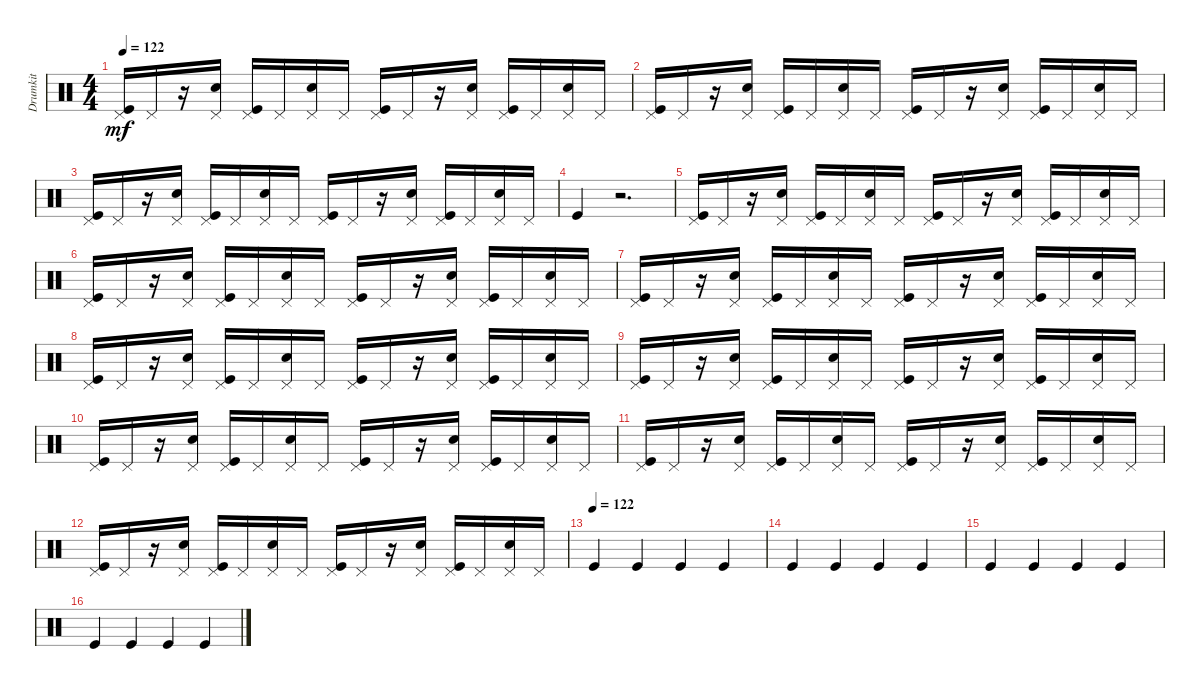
\track ("Drumkit" "Drumkit") {instrument percussion}
\staff {score}
\articulation defaults
\ts (4 4)
\tempo 122
\clef neutral
\ks c
("Kick (hit)" "Pedal Hi-Hat (hit)").16{dy mf} "Pedal Hi-Hat (hit)".16 r.16 ("Snare (hit) 2" "Pedal Hi-Hat (hit)").16 ("Kick (hit)" "Pedal Hi-Hat (hit)").16 "Pedal Hi-Hat (hit)".16 ("Snare (hit) 2" "Pedal Hi-Hat (hit)").16 "Pedal Hi-Hat (hit)".16 ("Kick (hit)" "Pedal Hi-Hat (hit)").16 "Pedal Hi-Hat (hit)".16 r.16 ("Snare (hit) 2" "Pedal Hi-Hat (hit)").16 ("Kick (hit)" "Pedal Hi-Hat (hit)").16 "Pedal Hi-Hat (hit)".16 ("Snare (hit) 2" "Pedal Hi-Hat (hit)").16 "Pedal Hi-Hat (hit)".16 |
("Kick (hit)" "Pedal Hi-Hat (hit)").16 "Pedal Hi-Hat (hit)".16 r.16 ("Snare (hit) 2" "Pedal Hi-Hat (hit)").16 ("Kick (hit)" "Pedal Hi-Hat (hit)").16 "Pedal Hi-Hat (hit)".16 ("Snare (hit) 2" "Pedal Hi-Hat (hit)").16 "Pedal Hi-Hat (hit)".16 ("Kick (hit)" "Pedal Hi-Hat (hit)").16 "Pedal Hi-Hat (hit)".16 r.16 ("Snare (hit) 2" "Pedal Hi-Hat (hit)").16 ("Kick (hit)" "Pedal Hi-Hat (hit)").16 "Pedal Hi-Hat (hit)".16 ("Snare (hit) 2" "Pedal Hi-Hat (hit)").16 "Pedal Hi-Hat (hit)".16 |
("Kick (hit)" "Pedal Hi-Hat (hit)").16 "Pedal Hi-Hat (hit)".16 r.16 ("Snare (hit) 2" "Pedal Hi-Hat (hit)").16 ("Kick (hit)" "Pedal Hi-Hat (hit)").16 "Pedal Hi-Hat (hit)".16 ("Snare (hit) 2" "Pedal Hi-Hat (hit)").16 "Pedal Hi-Hat (hit)".16 ("Kick (hit)" "Pedal Hi-Hat (hit)").16 "Pedal Hi-Hat (hit)".16 r.16 ("Snare (hit) 2" "Pedal Hi-Hat (hit)").16 ("Kick (hit)" "Pedal Hi-Hat (hit)").16 "Pedal Hi-Hat (hit)".16 ("Snare (hit) 2" "Pedal Hi-Hat (hit)").16 "Pedal Hi-Hat (hit)".16 |
"Kick (hit)".4 r.2{d} |
("Kick (hit)" "Pedal Hi-Hat (hit)").16 "Pedal Hi-Hat (hit)".16 r.16 ("Snare (hit) 2" "Pedal Hi-Hat (hit)").16 ("Kick (hit)" "Pedal Hi-Hat (hit)").16 "Pedal Hi-Hat (hit)".16 ("Snare (hit) 2" "Pedal Hi-Hat (hit)").16 "Pedal Hi-Hat (hit)".16 ("Kick (hit)" "Pedal Hi-Hat (hit)").16 "Pedal Hi-Hat (hit)".16 r.16 ("Snare (hit) 2" "Pedal Hi-Hat (hit)").16 ("Kick (hit)" "Pedal Hi-Hat (hit)").16 "Pedal Hi-Hat (hit)".16 ("Snare (hit) 2" "Pedal Hi-Hat (hit)").16 "Pedal Hi-Hat (hit)".16 |
("Kick (hit)" "Pedal Hi-Hat (hit)").16 "Pedal Hi-Hat (hit)".16 r.16 ("Snare (hit) 2" "Pedal Hi-Hat (hit)").16 ("Kick (hit)" "Pedal Hi-Hat (hit)").16 "Pedal Hi-Hat (hit)".16 ("Snare (hit) 2" "Pedal Hi-Hat (hit)").16 "Pedal Hi-Hat (hit)".16 ("Kick (hit)" "Pedal Hi-Hat (hit)").16 "Pedal Hi-Hat (hit)".16 r.16 ("Snare (hit) 2" "Pedal Hi-Hat (hit)").16 ("Kick (hit)" "Pedal Hi-Hat (hit)").16 "Pedal Hi-Hat (hit)".16 ("Snare (hit) 2" "Pedal Hi-Hat (hit)").16 "Pedal Hi-Hat (hit)".16 |
("Kick (hit)" "Pedal Hi-Hat (hit)").16 "Pedal Hi-Hat (hit)".16 r.16 ("Snare (hit) 2" "Pedal Hi-Hat (hit)").16 ("Kick (hit)" "Pedal Hi-Hat (hit)").16 "Pedal Hi-Hat (hit)".16 ("Snare (hit) 2" "Pedal Hi-Hat (hit)").16 "Pedal Hi-Hat (hit)".16 ("Kick (hit)" "Pedal Hi-Hat (hit)").16 "Pedal Hi-Hat (hit)".16 r.16 ("Snare (hit) 2" "Pedal Hi-Hat (hit)").16 ("Kick (hit)" "Pedal Hi-Hat (hit)").16 "Pedal Hi-Hat (hit)".16 ("Snare (hit) 2" "Pedal Hi-Hat (hit)").16 "Pedal Hi-Hat (hit)".16 |
("Kick (hit)" "Pedal Hi-Hat (hit)").16 "Pedal Hi-Hat (hit)".16 r.16 ("Snare (hit) 2" "Pedal Hi-Hat (hit)").16 ("Kick (hit)" "Pedal Hi-Hat (hit)").16 "Pedal Hi-Hat (hit)".16 ("Snare (hit) 2" "Pedal Hi-Hat (hit)").16 "Pedal Hi-Hat (hit)".16 ("Kick (hit)" "Pedal Hi-Hat (hit)").16 "Pedal Hi-Hat (hit)".16 r.16 ("Snare (hit) 2" "Pedal Hi-Hat (hit)").16 ("Kick (hit)" "Pedal Hi-Hat (hit)").16 "Pedal Hi-Hat (hit)".16 ("Snare (hit) 2" "Pedal Hi-Hat (hit)").16 "Pedal Hi-Hat (hit)".16 |
("Kick (hit)" "Pedal Hi-Hat (hit)").16 "Pedal Hi-Hat (hit)".16 r.16 ("Snare (hit) 2" "Pedal Hi-Hat (hit)").16 ("Kick (hit)" "Pedal Hi-Hat (hit)").16 "Pedal Hi-Hat (hit)".16 ("Snare (hit) 2" "Pedal Hi-Hat (hit)").16 "Pedal Hi-Hat (hit)".16 ("Kick (hit)" "Pedal Hi-Hat (hit)").16 "Pedal Hi-Hat (hit)".16 r.16 ("Snare (hit) 2" "Pedal Hi-Hat (hit)").16 ("Kick (hit)" "Pedal Hi-Hat (hit)").16 "Pedal Hi-Hat (hit)".16 ("Snare (hit) 2" "Pedal Hi-Hat (hit)").16 "Pedal Hi-Hat (hit)".16 |
("Kick (hit)" "Pedal Hi-Hat (hit)").16 "Pedal Hi-Hat (hit)".16 r.16 ("Snare (hit) 2" "Pedal Hi-Hat (hit)").16 ("Kick (hit)" "Pedal Hi-Hat (hit)").16 "Pedal Hi-Hat (hit)".16 ("Snare (hit) 2" "Pedal Hi-Hat (hit)").16 "Pedal Hi-Hat (hit)".16 ("Kick (hit)" "Pedal Hi-Hat (hit)").16 "Pedal Hi-Hat (hit)".16 r.16 ("Snare (hit) 2" "Pedal Hi-Hat (hit)").16 ("Kick (hit)" "Pedal Hi-Hat (hit)").16 "Pedal Hi-Hat (hit)".16 ("Snare (hit) 2" "Pedal Hi-Hat (hit)").16 "Pedal Hi-Hat (hit)".16 |
("Kick (hit)" "Pedal Hi-Hat (hit)").16 "Pedal Hi-Hat (hit)".16 r.16 ("Snare (hit) 2" "Pedal Hi-Hat (hit)").16 ("Kick (hit)" "Pedal Hi-Hat (hit)").16 "Pedal Hi-Hat (hit)".16 ("Snare (hit) 2" "Pedal Hi-Hat (hit)").16 "Pedal Hi-Hat (hit)".16 ("Kick (hit)" "Pedal Hi-Hat (hit)").16 "Pedal Hi-Hat (hit)".16 r.16 ("Snare (hit) 2" "Pedal Hi-Hat (hit)").16 ("Kick (hit)" "Pedal Hi-Hat (hit)").16 "Pedal Hi-Hat (hit)".16 ("Snare (hit) 2" "Pedal Hi-Hat (hit)").16 "Pedal Hi-Hat (hit)".16 |
("Kick (hit)" "Pedal Hi-Hat (hit)").16 "Pedal Hi-Hat (hit)".16 r.16 ("Snare (hit) 2" "Pedal Hi-Hat (hit)").16 ("Kick (hit)" "Pedal Hi-Hat (hit)").16 "Pedal Hi-Hat (hit)".16 ("Snare (hit) 2" "Pedal Hi-Hat (hit)").16 "Pedal Hi-Hat (hit)".16 ("Kick (hit)" "Pedal Hi-Hat (hit)").16 "Pedal Hi-Hat (hit)".16 r.16 ("Snare (hit) 2" "Pedal Hi-Hat (hit)").16 ("Kick (hit)" "Pedal Hi-Hat (hit)").16 "Pedal Hi-Hat (hit)".16 ("Snare (hit) 2" "Pedal Hi-Hat (hit)").16 "Pedal Hi-Hat (hit)".16 |
\tempo (122)
"Kick (hit)".4 "Kick (hit)".4 "Kick (hit)".4 "Kick (hit)".4 |
"Kick (hit)".4 "Kick (hit)".4 "Kick (hit)".4 "Kick (hit)".4 |
"Kick (hit)".4 "Kick (hit)".4 "Kick (hit)".4 "Kick (hit)".4 |
"Kick (hit)".4 "Kick (hit)".4 "Kick (hit)".4 "Kick (hit)".4
